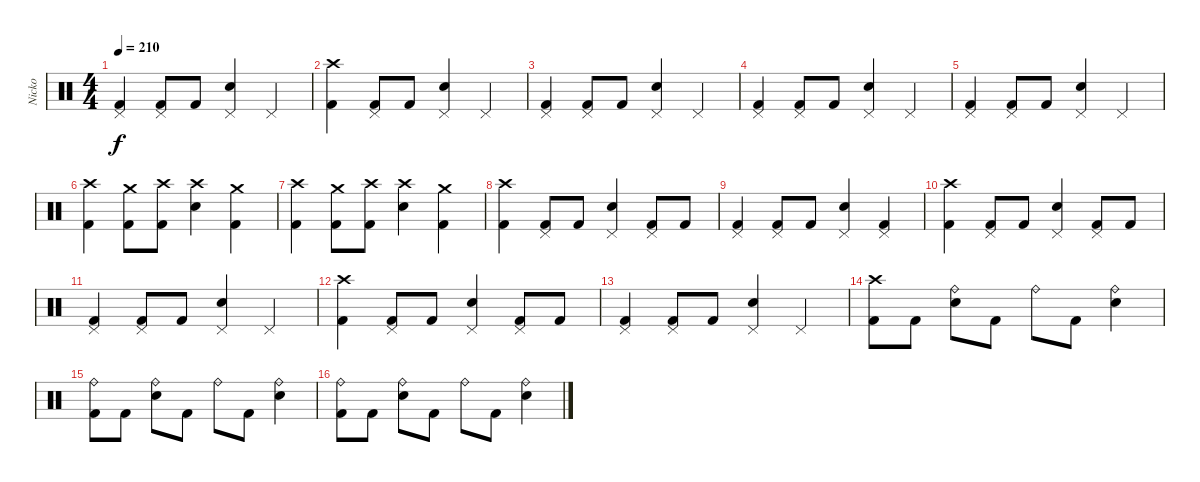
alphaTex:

\track ("Nicko" "Nicko") {instrument percussion}
\staff {score}
\articulation defaults
\ts (4 4)
\tempo 210
\clef neutral
\ks c
("Pedal Hi-Hat (hit)" "Kick (hit) 2").4{dy f} ("Pedal Hi-Hat (hit)" "Kick (hit) 2").8 "Kick (hit) 2".8 ("Pedal Hi-Hat (hit)" "Electric Snare (hit)").4 "Pedal Hi-Hat (hit)".4 |
("Crash high (hit)" "Kick (hit) 2").4 ("Pedal Hi-Hat (hit)" "Kick (hit) 2").8 "Kick (hit) 2".8 ("Pedal Hi-Hat (hit)" "Electric Snare (hit)").4 "Pedal Hi-Hat (hit)".4 |
("Pedal Hi-Hat (hit)" "Kick (hit) 2").4 ("Pedal Hi-Hat (hit)" "Kick (hit) 2").8 "Kick (hit) 2".8 ("Pedal Hi-Hat (hit)" "Electric Snare (hit)").4 "Pedal Hi-Hat (hit)".4 |
("Pedal Hi-Hat (hit)" "Kick (hit) 2").4 ("Pedal Hi-Hat (hit)" "Kick (hit) 2").8 "Kick (hit) 2".8 ("Pedal Hi-Hat (hit)" "Electric Snare (hit)").4 "Pedal Hi-Hat (hit)".4 |
("Pedal Hi-Hat (hit)" "Kick (hit) 2").4 ("Pedal Hi-Hat (hit)" "Kick (hit) 2").8 "Kick (hit) 2".8 ("Pedal Hi-Hat (hit)" "Electric Snare (hit)").4 "Pedal Hi-Hat (hit)".4 |
("Crash high (hit)" "Kick (hit) 2").4 ("Crash medium (hit)" "Kick (hit) 2").8 ("Crash high (hit)" "Kick (hit) 2").8 ("Crash high (hit)" "Electric Snare (hit)").4 ("Crash medium (hit)" "Kick (hit) 2").4 |
("Crash high (hit)" "Kick (hit) 2").4 ("Crash medium (hit)" "Kick (hit) 2").8 ("Crash high (hit)" "Kick (hit) 2").8 ("Crash high (hit)" "Electric Snare (hit)").4 ("Crash medium (hit)" "Kick (hit) 2").4 |
("Crash high (hit)" "Kick (hit) 2").4 ("Pedal Hi-Hat (hit)" "Kick (hit) 2").8 "Kick (hit) 2".8 ("Pedal Hi-Hat (hit)" "Electric Snare (hit)").4 ("Pedal Hi-Hat (hit)" "Kick (hit) 2").8 "Kick (hit) 2".8 |
("Pedal Hi-Hat (hit)" "Kick (hit) 2").4 ("Pedal Hi-Hat (hit)" "Kick (hit) 2").8 "Kick (hit) 2".8 ("Pedal Hi-Hat (hit)" "Electric Snare (hit)").4 ("Pedal Hi-Hat (hit)" "Kick (hit) 2").4 |
("Crash high (hit)" "Kick (hit) 2").4 ("Pedal Hi-Hat (hit)" "Kick (hit) 2").8 "Kick (hit) 2".8 ("Pedal Hi-Hat (hit)" "Electric Snare (hit)").4 ("Pedal Hi-Hat (hit)" "Kick (hit) 2").8 "Kick (hit) 2".8 |
("Pedal Hi-Hat (hit)" "Kick (hit) 2").4 ("Pedal Hi-Hat (hit)" "Kick (hit) 2").8 "Kick (hit) 2".8 ("Pedal Hi-Hat (hit)" "Electric Snare (hit)").4 "Pedal Hi-Hat (hit)".4 |
("Crash high (hit)" "Kick (hit) 2").4 ("Pedal Hi-Hat (hit)" "Kick (hit) 2").8 "Kick (hit) 2".8 ("Pedal Hi-Hat (hit)" "Electric Snare (hit)").4 ("Pedal Hi-Hat (hit)" "Kick (hit) 2").8 "Kick (hit) 2".8 |
("Pedal Hi-Hat (hit)" "Kick (hit) 2").4 ("Pedal Hi-Hat (hit)" "Kick (hit) 2").8 "Kick (hit) 2".8 ("Pedal Hi-Hat (hit)" "Electric Snare (hit)").4 "Pedal Hi-Hat (hit)".4 |
("Crash high (hit)" "Kick (hit) 2").8 "Kick (hit) 2".8 ("Ride (bell)" "Electric Snare (hit)").8 "Kick (hit) 2".8 "Ride (bell)".8 "Kick (hit) 2".8 ("Ride (bell)" "Electric Snare (hit)").4 |
("Ride (bell)" "Kick (hit) 2").8 "Kick (hit) 2".8 ("Ride (bell)" "Electric Snare (hit)").8 "Kick (hit) 2".8 "Ride (bell)".8 "Kick (hit) 2".8 ("Ride (bell)" "Electric Snare (hit)").4 |
("Ride (bell)" "Kick (hit) 2").8 "Kick (hit) 2".8 ("Ride (bell)" "Electric Snare (hit)").8 "Kick (hit) 2".8 "Ride (bell)".8 "Kick (hit) 2".8 ("Ride (bell)" "Electric Snare (hit)").4
